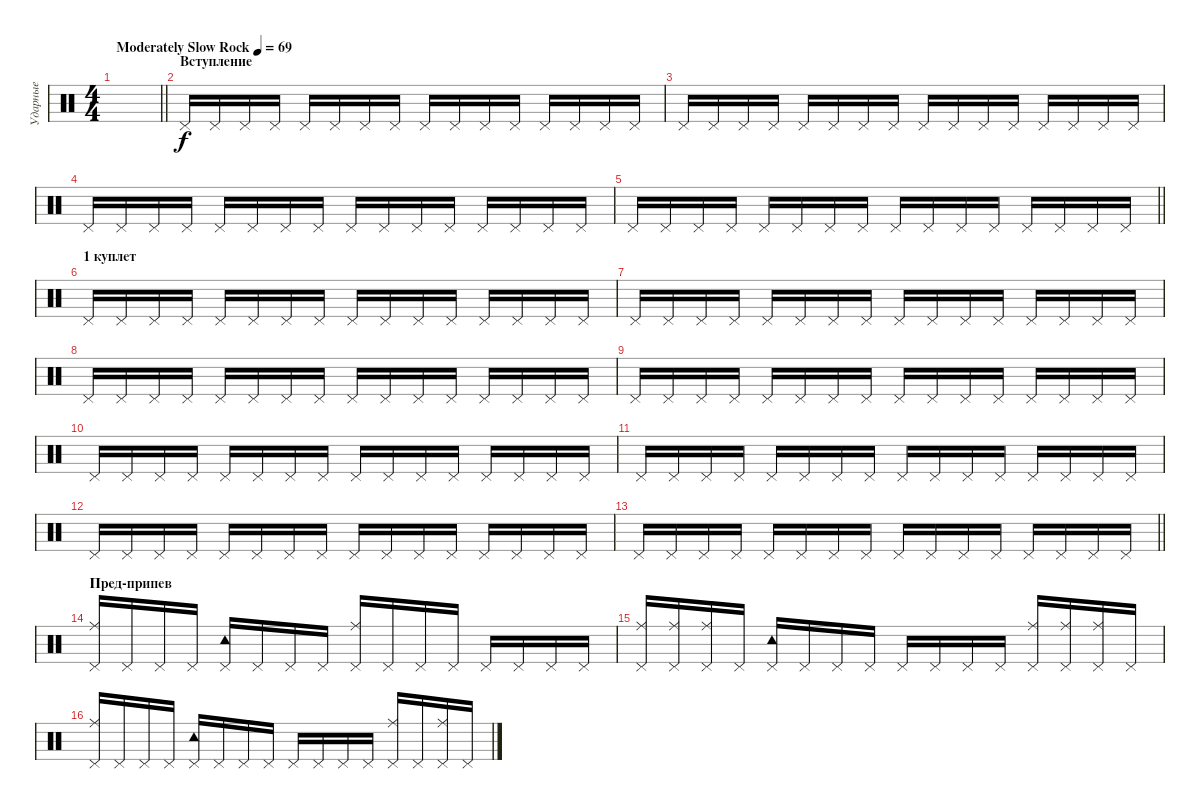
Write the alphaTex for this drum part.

\track ("Ударные" "Ударные") {instrument percussion}
\staff {score}
\articulation defaults
\ts (4 4)
\tempo (69 "Moderately Slow Rock")
\clef neutral
\barLineRight lightlight
\ks c
|
\section ("" "Вступление")
"Pedal Hi-Hat (hit)".16 "Pedal Hi-Hat (hit)".16 "Pedal Hi-Hat (hit)".16 "Pedal Hi-Hat (hit)".16 "Pedal Hi-Hat (hit)".16 "Pedal Hi-Hat (hit)".16 "Pedal Hi-Hat (hit)".16 "Pedal Hi-Hat (hit)".16 "Pedal Hi-Hat (hit)".16 "Pedal Hi-Hat (hit)".16 "Pedal Hi-Hat (hit)".16 "Pedal Hi-Hat (hit)".16 "Pedal Hi-Hat (hit)".16 "Pedal Hi-Hat (hit)".16 "Pedal Hi-Hat (hit)".16 "Pedal Hi-Hat (hit)".16 |
"Pedal Hi-Hat (hit)".16 "Pedal Hi-Hat (hit)".16 "Pedal Hi-Hat (hit)".16 "Pedal Hi-Hat (hit)".16 "Pedal Hi-Hat (hit)".16 "Pedal Hi-Hat (hit)".16 "Pedal Hi-Hat (hit)".16 "Pedal Hi-Hat (hit)".16 "Pedal Hi-Hat (hit)".16 "Pedal Hi-Hat (hit)".16 "Pedal Hi-Hat (hit)".16 "Pedal Hi-Hat (hit)".16 "Pedal Hi-Hat (hit)".16 "Pedal Hi-Hat (hit)".16 "Pedal Hi-Hat (hit)".16 "Pedal Hi-Hat (hit)".16 |
"Pedal Hi-Hat (hit)".16 "Pedal Hi-Hat (hit)".16 "Pedal Hi-Hat (hit)".16 "Pedal Hi-Hat (hit)".16 "Pedal Hi-Hat (hit)".16 "Pedal Hi-Hat (hit)".16 "Pedal Hi-Hat (hit)".16 "Pedal Hi-Hat (hit)".16 "Pedal Hi-Hat (hit)".16 "Pedal Hi-Hat (hit)".16 "Pedal Hi-Hat (hit)".16 "Pedal Hi-Hat (hit)".16 "Pedal Hi-Hat (hit)".16 "Pedal Hi-Hat (hit)".16 "Pedal Hi-Hat (hit)".16 "Pedal Hi-Hat (hit)".16 |
\barLineRight lightlight "Pedal Hi-Hat (hit)".16 "Pedal Hi-Hat (hit)".16 "Pedal Hi-Hat (hit)".16 "Pedal Hi-Hat (hit)".16 "Pedal Hi-Hat (hit)".16 "Pedal Hi-Hat (hit)".16 "Pedal Hi-Hat (hit)".16 "Pedal Hi-Hat (hit)".16 "Pedal Hi-Hat (hit)".16 "Pedal Hi-Hat (hit)".16 "Pedal Hi-Hat (hit)".16 "Pedal Hi-Hat (hit)".16 "Pedal Hi-Hat (hit)".16 "Pedal Hi-Hat (hit)".16 "Pedal Hi-Hat (hit)".16 "Pedal Hi-Hat (hit)".16
|
\section ("" "1 куплет")
"Pedal Hi-Hat (hit)".16 "Pedal Hi-Hat (hit)".16 "Pedal Hi-Hat (hit)".16 "Pedal Hi-Hat (hit)".16 "Pedal Hi-Hat (hit)".16 "Pedal Hi-Hat (hit)".16 "Pedal Hi-Hat (hit)".16 "Pedal Hi-Hat (hit)".16 "Pedal Hi-Hat (hit)".16 "Pedal Hi-Hat (hit)".16 "Pedal Hi-Hat (hit)".16 "Pedal Hi-Hat (hit)".16 "Pedal Hi-Hat (hit)".16 "Pedal Hi-Hat (hit)".16 "Pedal Hi-Hat (hit)".16 "Pedal Hi-Hat (hit)".16 |
"Pedal Hi-Hat (hit)".16 "Pedal Hi-Hat (hit)".16 "Pedal Hi-Hat (hit)".16 "Pedal Hi-Hat (hit)".16 "Pedal Hi-Hat (hit)".16 "Pedal Hi-Hat (hit)".16 "Pedal Hi-Hat (hit)".16 "Pedal Hi-Hat (hit)".16 "Pedal Hi-Hat (hit)".16 "Pedal Hi-Hat (hit)".16 "Pedal Hi-Hat (hit)".16 "Pedal Hi-Hat (hit)".16 "Pedal Hi-Hat (hit)".16 "Pedal Hi-Hat (hit)".16 "Pedal Hi-Hat (hit)".16 "Pedal Hi-Hat (hit)".16 |
"Pedal Hi-Hat (hit)".16 "Pedal Hi-Hat (hit)".16 "Pedal Hi-Hat (hit)".16 "Pedal Hi-Hat (hit)".16 "Pedal Hi-Hat (hit)".16 "Pedal Hi-Hat (hit)".16 "Pedal Hi-Hat (hit)".16 "Pedal Hi-Hat (hit)".16 "Pedal Hi-Hat (hit)".16 "Pedal Hi-Hat (hit)".16 "Pedal Hi-Hat (hit)".16 "Pedal Hi-Hat (hit)".16 "Pedal Hi-Hat (hit)".16 "Pedal Hi-Hat (hit)".16 "Pedal Hi-Hat (hit)".16 "Pedal Hi-Hat (hit)".16 |
"Pedal Hi-Hat (hit)".16 "Pedal Hi-Hat (hit)".16 "Pedal Hi-Hat (hit)".16 "Pedal Hi-Hat (hit)".16 "Pedal Hi-Hat (hit)".16 "Pedal Hi-Hat (hit)".16 "Pedal Hi-Hat (hit)".16 "Pedal Hi-Hat (hit)".16 "Pedal Hi-Hat (hit)".16 "Pedal Hi-Hat (hit)".16 "Pedal Hi-Hat (hit)".16 "Pedal Hi-Hat (hit)".16 "Pedal Hi-Hat (hit)".16 "Pedal Hi-Hat (hit)".16 "Pedal Hi-Hat (hit)".16 "Pedal Hi-Hat (hit)".16 |
"Pedal Hi-Hat (hit)".16 "Pedal Hi-Hat (hit)".16 "Pedal Hi-Hat (hit)".16 "Pedal Hi-Hat (hit)".16 "Pedal Hi-Hat (hit)".16 "Pedal Hi-Hat (hit)".16 "Pedal Hi-Hat (hit)".16 "Pedal Hi-Hat (hit)".16 "Pedal Hi-Hat (hit)".16 "Pedal Hi-Hat (hit)".16 "Pedal Hi-Hat (hit)".16 "Pedal Hi-Hat (hit)".16 "Pedal Hi-Hat (hit)".16 "Pedal Hi-Hat (hit)".16 "Pedal Hi-Hat (hit)".16 "Pedal Hi-Hat (hit)".16 |
"Pedal Hi-Hat (hit)".16 "Pedal Hi-Hat (hit)".16 "Pedal Hi-Hat (hit)".16 "Pedal Hi-Hat (hit)".16 "Pedal Hi-Hat (hit)".16 "Pedal Hi-Hat (hit)".16 "Pedal Hi-Hat (hit)".16 "Pedal Hi-Hat (hit)".16 "Pedal Hi-Hat (hit)".16 "Pedal Hi-Hat (hit)".16 "Pedal Hi-Hat (hit)".16 "Pedal Hi-Hat (hit)".16 "Pedal Hi-Hat (hit)".16 "Pedal Hi-Hat (hit)".16 "Pedal Hi-Hat (hit)".16 "Pedal Hi-Hat (hit)".16 |
"Pedal Hi-Hat (hit)".16 "Pedal Hi-Hat (hit)".16 "Pedal Hi-Hat (hit)".16 "Pedal Hi-Hat (hit)".16 "Pedal Hi-Hat (hit)".16 "Pedal Hi-Hat (hit)".16 "Pedal Hi-Hat (hit)".16 "Pedal Hi-Hat (hit)".16 "Pedal Hi-Hat (hit)".16 "Pedal Hi-Hat (hit)".16 "Pedal Hi-Hat (hit)".16 "Pedal Hi-Hat (hit)".16 "Pedal Hi-Hat (hit)".16 "Pedal Hi-Hat (hit)".16 "Pedal Hi-Hat (hit)".16 "Pedal Hi-Hat (hit)".16 |
\barLineRight lightlight "Pedal Hi-Hat (hit)".16 "Pedal Hi-Hat (hit)".16 "Pedal Hi-Hat (hit)".16 "Pedal Hi-Hat (hit)".16 "Pedal Hi-Hat (hit)".16 "Pedal Hi-Hat (hit)".16 "Pedal Hi-Hat (hit)".16 "Pedal Hi-Hat (hit)".16 "Pedal Hi-Hat (hit)".16 "Pedal Hi-Hat (hit)".16 "Pedal Hi-Hat (hit)".16 "Pedal Hi-Hat (hit)".16 "Pedal Hi-Hat (hit)".16 "Pedal Hi-Hat (hit)".16 "Pedal Hi-Hat (hit)".16 "Pedal Hi-Hat (hit)".16
|
\section ("" "Пред-припев")
("Pedal Hi-Hat (hit)" "Ride (middle)").16 "Pedal Hi-Hat (hit)".16 "Pedal Hi-Hat (hit)".16 "Pedal Hi-Hat (hit)".16 ("Pedal Hi-Hat (hit)" "Tambourine (hit)").16 "Pedal Hi-Hat (hit)".16 "Pedal Hi-Hat (hit)".16 "Pedal Hi-Hat (hit)".16 ("Pedal Hi-Hat (hit)" "Ride (middle)").16 "Pedal Hi-Hat (hit)".16 "Pedal Hi-Hat (hit)".16 "Pedal Hi-Hat (hit)".16 "Pedal Hi-Hat (hit)".16 "Pedal Hi-Hat (hit)".16 "Pedal Hi-Hat (hit)".16 "Pedal Hi-Hat (hit)".16 |
("Pedal Hi-Hat (hit)" "Ride (middle)").16 ("Pedal Hi-Hat (hit)" "Ride (middle)").16 ("Pedal Hi-Hat (hit)" "Ride (middle)").16 "Pedal Hi-Hat (hit)".16 ("Pedal Hi-Hat (hit)" "Tambourine (hit)").16 "Pedal Hi-Hat (hit)".16 "Pedal Hi-Hat (hit)".16 "Pedal Hi-Hat (hit)".16 "Pedal Hi-Hat (hit)".16 "Pedal Hi-Hat (hit)".16 "Pedal Hi-Hat (hit)".16 "Pedal Hi-Hat (hit)".16 ("Pedal Hi-Hat (hit)" "Ride (middle)").16 ("Pedal Hi-Hat (hit)" "Ride (middle)").16 ("Pedal Hi-Hat (hit)" "Ride (middle)").16 "Pedal Hi-Hat (hit)".16 |
("Pedal Hi-Hat (hit)" "Ride (middle)").16 "Pedal Hi-Hat (hit)".16 "Pedal Hi-Hat (hit)".16 "Pedal Hi-Hat (hit)".16 ("Pedal Hi-Hat (hit)" "Tambourine (hit)").16 "Pedal Hi-Hat (hit)".16 "Pedal Hi-Hat (hit)".16 "Pedal Hi-Hat (hit)".16 "Pedal Hi-Hat (hit)".16 "Pedal Hi-Hat (hit)".16 "Pedal Hi-Hat (hit)".16 "Pedal Hi-Hat (hit)".16 ("Pedal Hi-Hat (hit)" "Ride (middle)").16 "Pedal Hi-Hat (hit)".16 ("Pedal Hi-Hat (hit)" "Ride (middle)").16 "Pedal Hi-Hat (hit)".16
